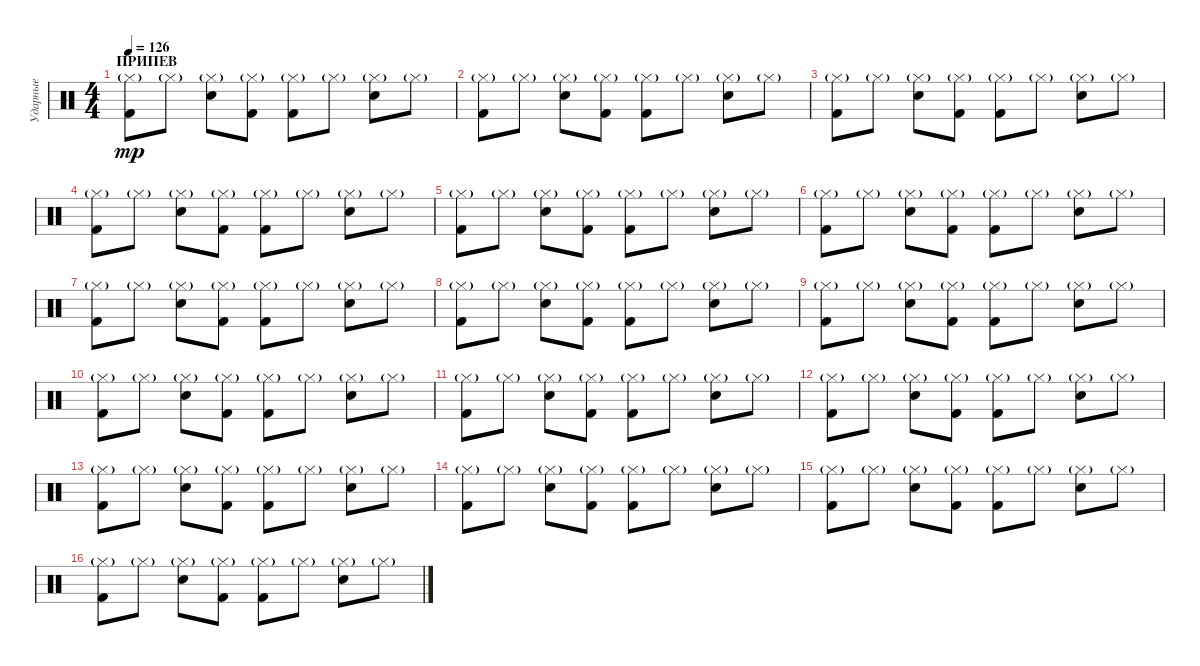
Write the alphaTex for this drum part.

\track ("Ударные" "Ударные") {instrument percussion}
\staff {score}
\articulation defaults
\ts (4 4)
\section ("" "ПРИПЕВ")
\tempo 126
\clef neutral
\ks c
("Hi-Hat (closed)"{g} "Kick (hit) 2").8{dy mp} "Hi-Hat (closed)"{g}.8 ("Hi-Hat (closed)"{g} "Snare (hit) 2").8 ("Hi-Hat (closed)"{g} "Kick (hit) 2").8 ("Hi-Hat (closed)"{g} "Kick (hit) 2").8 "Hi-Hat (closed)"{g}.8 ("Hi-Hat (closed)"{g} "Snare (hit) 2").8 "Hi-Hat (closed)"{g}.8 |
("Hi-Hat (closed)"{g} "Kick (hit) 2").8 "Hi-Hat (closed)"{g}.8 ("Hi-Hat (closed)"{g} "Snare (hit) 2").8 ("Hi-Hat (closed)"{g} "Kick (hit) 2").8 ("Hi-Hat (closed)"{g} "Kick (hit) 2").8 "Hi-Hat (closed)"{g}.8 ("Hi-Hat (closed)"{g} "Snare (hit) 2").8 "Hi-Hat (closed)"{g}.8 |
("Hi-Hat (closed)"{g} "Kick (hit) 2").8 "Hi-Hat (closed)"{g}.8 ("Hi-Hat (closed)"{g} "Snare (hit) 2").8 ("Hi-Hat (closed)"{g} "Kick (hit) 2").8 ("Hi-Hat (closed)"{g} "Kick (hit) 2").8 "Hi-Hat (closed)"{g}.8 ("Hi-Hat (closed)"{g} "Snare (hit) 2").8 "Hi-Hat (closed)"{g}.8 |
("Hi-Hat (closed)"{g} "Kick (hit) 2").8 "Hi-Hat (closed)"{g}.8 ("Hi-Hat (closed)"{g} "Snare (hit) 2").8 ("Hi-Hat (closed)"{g} "Kick (hit) 2").8 ("Hi-Hat (closed)"{g} "Kick (hit) 2").8 "Hi-Hat (closed)"{g}.8 ("Hi-Hat (closed)"{g} "Snare (hit) 2").8 "Hi-Hat (closed)"{g}.8 |
("Hi-Hat (closed)"{g} "Kick (hit) 2").8 "Hi-Hat (closed)"{g}.8 ("Hi-Hat (closed)"{g} "Snare (hit) 2").8 ("Hi-Hat (closed)"{g} "Kick (hit) 2").8 ("Hi-Hat (closed)"{g} "Kick (hit) 2").8 "Hi-Hat (closed)"{g}.8 ("Hi-Hat (closed)"{g} "Snare (hit) 2").8 "Hi-Hat (closed)"{g}.8 |
("Hi-Hat (closed)"{g} "Kick (hit) 2").8 "Hi-Hat (closed)"{g}.8 ("Hi-Hat (closed)"{g} "Snare (hit) 2").8 ("Hi-Hat (closed)"{g} "Kick (hit) 2").8 ("Hi-Hat (closed)"{g} "Kick (hit) 2").8 "Hi-Hat (closed)"{g}.8 ("Hi-Hat (closed)"{g} "Snare (hit) 2").8 "Hi-Hat (closed)"{g}.8 |
("Hi-Hat (closed)"{g} "Kick (hit) 2").8 "Hi-Hat (closed)"{g}.8 ("Hi-Hat (closed)"{g} "Snare (hit) 2").8 ("Hi-Hat (closed)"{g} "Kick (hit) 2").8 ("Hi-Hat (closed)"{g} "Kick (hit) 2").8 "Hi-Hat (closed)"{g}.8 ("Hi-Hat (closed)"{g} "Snare (hit) 2").8 "Hi-Hat (closed)"{g}.8 |
("Hi-Hat (closed)"{g} "Kick (hit) 2").8 "Hi-Hat (closed)"{g}.8 ("Hi-Hat (closed)"{g} "Snare (hit) 2").8 ("Hi-Hat (closed)"{g} "Kick (hit) 2").8 ("Hi-Hat (closed)"{g} "Kick (hit) 2").8 "Hi-Hat (closed)"{g}.8 ("Hi-Hat (closed)"{g} "Snare (hit) 2").8 "Hi-Hat (closed)"{g}.8 |
("Hi-Hat (closed)"{g} "Kick (hit) 2").8 "Hi-Hat (closed)"{g}.8 ("Hi-Hat (closed)"{g} "Snare (hit) 2").8 ("Hi-Hat (closed)"{g} "Kick (hit) 2").8 ("Hi-Hat (closed)"{g} "Kick (hit) 2").8 "Hi-Hat (closed)"{g}.8 ("Hi-Hat (closed)"{g} "Snare (hit) 2").8 "Hi-Hat (closed)"{g}.8 |
("Hi-Hat (closed)"{g} "Kick (hit) 2").8 "Hi-Hat (closed)"{g}.8 ("Hi-Hat (closed)"{g} "Snare (hit) 2").8 ("Hi-Hat (closed)"{g} "Kick (hit) 2").8 ("Hi-Hat (closed)"{g} "Kick (hit) 2").8 "Hi-Hat (closed)"{g}.8 ("Hi-Hat (closed)"{g} "Snare (hit) 2").8 "Hi-Hat (closed)"{g}.8 |
("Hi-Hat (closed)"{g} "Kick (hit) 2").8 "Hi-Hat (closed)"{g}.8 ("Hi-Hat (closed)"{g} "Snare (hit) 2").8 ("Hi-Hat (closed)"{g} "Kick (hit) 2").8 ("Hi-Hat (closed)"{g} "Kick (hit) 2").8 "Hi-Hat (closed)"{g}.8 ("Hi-Hat (closed)"{g} "Snare (hit) 2").8 "Hi-Hat (closed)"{g}.8 |
("Hi-Hat (closed)"{g} "Kick (hit) 2").8 "Hi-Hat (closed)"{g}.8 ("Hi-Hat (closed)"{g} "Snare (hit) 2").8 ("Hi-Hat (closed)"{g} "Kick (hit) 2").8 ("Hi-Hat (closed)"{g} "Kick (hit) 2").8 "Hi-Hat (closed)"{g}.8 ("Hi-Hat (closed)"{g} "Snare (hit) 2").8 "Hi-Hat (closed)"{g}.8 |
("Hi-Hat (closed)"{g} "Kick (hit) 2").8 "Hi-Hat (closed)"{g}.8 ("Hi-Hat (closed)"{g} "Snare (hit) 2").8 ("Hi-Hat (closed)"{g} "Kick (hit) 2").8 ("Hi-Hat (closed)"{g} "Kick (hit) 2").8 "Hi-Hat (closed)"{g}.8 ("Hi-Hat (closed)"{g} "Snare (hit) 2").8 "Hi-Hat (closed)"{g}.8 |
("Hi-Hat (closed)"{g} "Kick (hit) 2").8 "Hi-Hat (closed)"{g}.8 ("Hi-Hat (closed)"{g} "Snare (hit) 2").8 ("Hi-Hat (closed)"{g} "Kick (hit) 2").8 ("Hi-Hat (closed)"{g} "Kick (hit) 2").8 "Hi-Hat (closed)"{g}.8 ("Hi-Hat (closed)"{g} "Snare (hit) 2").8 "Hi-Hat (closed)"{g}.8 |
("Hi-Hat (closed)"{g} "Kick (hit) 2").8 "Hi-Hat (closed)"{g}.8 ("Hi-Hat (closed)"{g} "Snare (hit) 2").8 ("Hi-Hat (closed)"{g} "Kick (hit) 2").8 ("Hi-Hat (closed)"{g} "Kick (hit) 2").8 "Hi-Hat (closed)"{g}.8 ("Hi-Hat (closed)"{g} "Snare (hit) 2").8 "Hi-Hat (closed)"{g}.8 |
("Hi-Hat (closed)"{g} "Kick (hit) 2").8 "Hi-Hat (closed)"{g}.8 ("Hi-Hat (closed)"{g} "Snare (hit) 2").8 ("Hi-Hat (closed)"{g} "Kick (hit) 2").8 ("Hi-Hat (closed)"{g} "Kick (hit) 2").8 "Hi-Hat (closed)"{g}.8 ("Hi-Hat (closed)"{g} "Snare (hit) 2").8 "Hi-Hat (closed)"{g}.8
